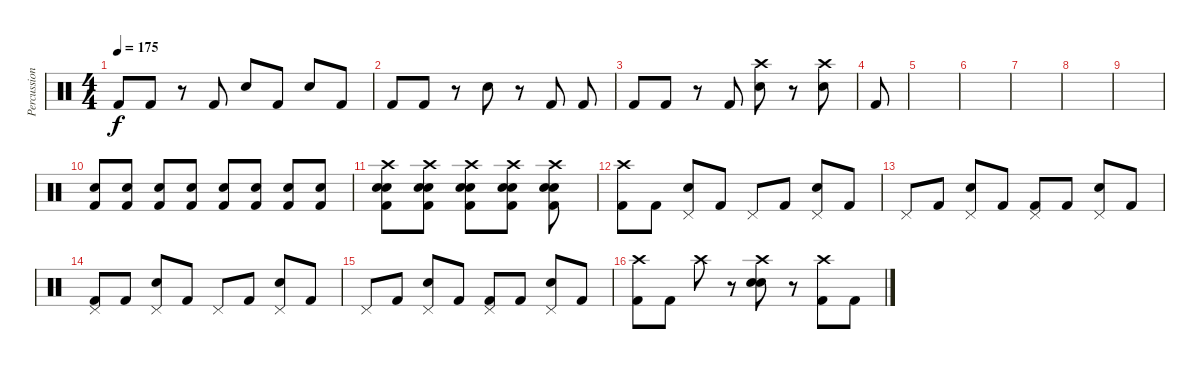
\track ("Percussion" "Percussion") {instrument percussion}
\staff {score}
\articulation defaults
\ts (4 4)
\tempo 175
\clef neutral
\ks c "Kick (hit) 2".8{dy f} "Kick (hit) 2".8
r.8 "Kick (hit) 2".8 "Electric Snare (hit)".8 "Kick (hit) 2".8 "Electric Snare (hit)".8 "Kick (hit) 2".8 |
"Kick (hit) 2".8 "Kick (hit) 2".8 r.8 "Electric Snare (hit)".8 r.8 "Kick (hit) 2".8 "Kick (hit) 2".8 |
"Kick (hit) 2".8 "Kick (hit) 2".8 r.8 "Kick (hit) 2".8 ("Crash high (hit)" "Electric Snare (hit)").8 r.8 ("Crash high (hit)" "Electric Snare (hit)").8 |
"Kick (hit) 2".8 |
|
|
|
|
|
("Electric Snare (hit)" "Kick (hit) 2").8 ("Electric Snare (hit)" "Kick (hit) 2").8 ("Electric Snare (hit)" "Kick (hit) 2").8 ("Electric Snare (hit)" "Kick (hit) 2").8 ("Electric Snare (hit)" "Kick (hit) 2").8 ("Electric Snare (hit)" "Kick (hit) 2").8 ("Electric Snare (hit)" "Kick (hit) 2").8 ("Electric Snare (hit)" "Kick (hit) 2").8 |
("Crash high (hit)" "Electric Snare (hit)" "Electric Snare (hit)" "Kick (hit) 2").8 ("Crash high (hit)" "Electric Snare (hit)" "Electric Snare (hit)" "Kick (hit) 2").8 ("Crash high (hit)" "Electric Snare (hit)" "Electric Snare (hit)" "Kick (hit) 2").8 ("Crash high (hit)" "Electric Snare (hit)" "Electric Snare (hit)" "Kick (hit) 2").8 ("Crash high (hit)" "Electric Snare (hit)" "Electric Snare (hit)" "Kick (hit) 2").8 |
("Crash high (hit)" "Kick (hit) 2").8 "Kick (hit) 2".8 ("Pedal Hi-Hat (hit)" "Electric Snare (hit)").8 "Kick (hit) 2".8 "Pedal Hi-Hat (hit)".8 "Kick (hit) 2".8 ("Pedal Hi-Hat (hit)" "Electric Snare (hit)").8 "Kick (hit) 2".8 |
"Pedal Hi-Hat (hit)".8 "Kick (hit) 2".8 ("Pedal Hi-Hat (hit)" "Electric Snare (hit)").8 "Kick (hit) 2".8 ("Pedal Hi-Hat (hit)" "Kick (hit) 2").8 "Kick (hit) 2".8 ("Pedal Hi-Hat (hit)" "Electric Snare (hit)").8 "Kick (hit) 2".8 |
("Pedal Hi-Hat (hit)" "Kick (hit) 2").8 "Kick (hit) 2".8 ("Pedal Hi-Hat (hit)" "Electric Snare (hit)").8 "Kick (hit) 2".8 "Pedal Hi-Hat (hit)".8 "Kick (hit) 2".8 ("Pedal Hi-Hat (hit)" "Electric Snare (hit)").8 "Kick (hit) 2".8 |
"Pedal Hi-Hat (hit)".8 "Kick (hit) 2".8 ("Pedal Hi-Hat (hit)" "Electric Snare (hit)").8 "Kick (hit) 2".8 ("Pedal Hi-Hat (hit)" "Kick (hit) 2").8 "Kick (hit) 2".8 ("Pedal Hi-Hat (hit)" "Electric Snare (hit)").8 "Kick (hit) 2".8 |
("Crash high (hit)" "Kick (hit) 2").8 "Kick (hit) 2".8 "Crash high (hit)".8 r.8 ("Crash high (hit)" "Electric Snare (hit)" "Electric Snare (hit)").8 r.8 ("Crash high (hit)" "Kick (hit) 2").8 "Kick (hit) 2".8
